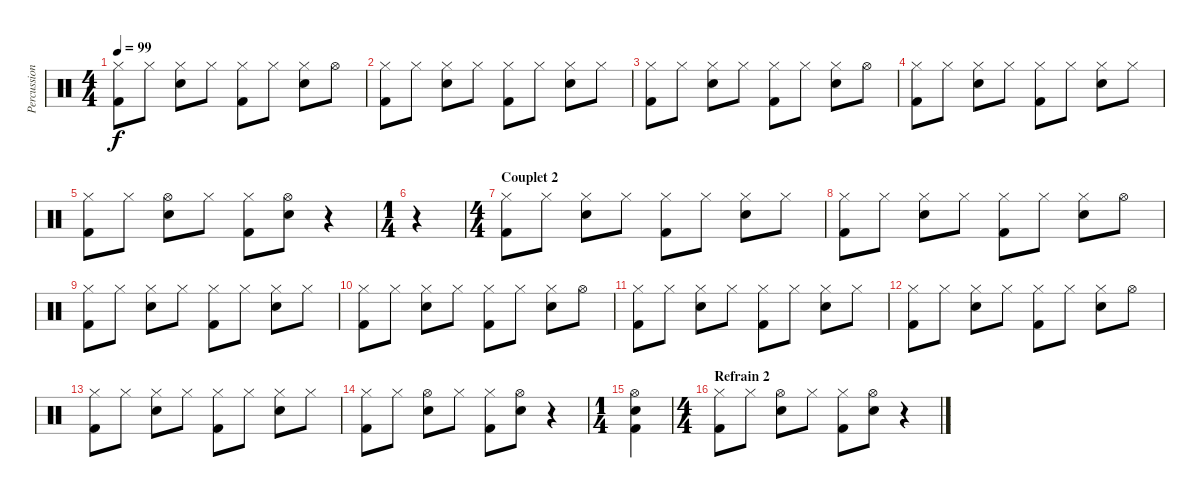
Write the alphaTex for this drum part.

\track ("Percussions" "Percussion") {instrument percussion}
\staff {score}
\articulation defaults
\ts (4 4)
\tempo 99
\clef neutral
\ks c
("Hi-Hat (closed)" "Kick (hit) 2").8{dy f} "Hi-Hat (closed)".8 ("Hi-Hat (closed)" "Electric Snare (hit)").8 "Hi-Hat (closed)".8 ("Hi-Hat (closed)" "Kick (hit) 2").8 "Hi-Hat (closed)".8 ("Hi-Hat (closed)" "Electric Snare (hit)").8 "Hi-Hat (open)".8 |
("Hi-Hat (closed)" "Kick (hit) 2").8 "Hi-Hat (closed)".8 ("Hi-Hat (closed)" "Electric Snare (hit)").8 "Hi-Hat (closed)".8 ("Hi-Hat (closed)" "Kick (hit) 2").8 "Hi-Hat (closed)".8 ("Hi-Hat (closed)" "Electric Snare (hit)").8 "Hi-Hat (closed)".8 |
("Hi-Hat (closed)" "Kick (hit) 2").8 "Hi-Hat (closed)".8 ("Hi-Hat (closed)" "Electric Snare (hit)").8 "Hi-Hat (closed)".8 ("Hi-Hat (closed)" "Kick (hit) 2").8 "Hi-Hat (closed)".8 ("Hi-Hat (closed)" "Electric Snare (hit)").8 "Hi-Hat (open)".8 |
("Hi-Hat (closed)" "Kick (hit) 2").8 "Hi-Hat (closed)".8 ("Hi-Hat (closed)" "Electric Snare (hit)").8 "Hi-Hat (closed)".8 ("Hi-Hat (closed)" "Kick (hit) 2").8 "Hi-Hat (closed)".8 ("Hi-Hat (closed)" "Electric Snare (hit)").8 "Hi-Hat (closed)".8 |
("Hi-Hat (closed)" "Kick (hit) 2").8 "Hi-Hat (closed)".8 ("Hi-Hat (open)" "Electric Snare (hit)").8 "Hi-Hat (closed)".8 ("Hi-Hat (closed)" "Kick (hit) 2").8 ("Hi-Hat (open)" "Electric Snare (hit)").8 r.4 |
\ts (1 4)
r.4 |
\ts (4 4)
\section ("" "Couplet 2")
("Hi-Hat (closed)" "Kick (hit) 2").8 "Hi-Hat (closed)".8 ("Hi-Hat (closed)" "Electric Snare (hit)").8 "Hi-Hat (closed)".8 ("Hi-Hat (closed)" "Kick (hit) 2").8 "Hi-Hat (closed)".8 ("Hi-Hat (closed)" "Electric Snare (hit)").8 "Hi-Hat (closed)".8 |
("Hi-Hat (closed)" "Kick (hit) 2").8 "Hi-Hat (closed)".8 ("Hi-Hat (closed)" "Electric Snare (hit)").8 "Hi-Hat (closed)".8 ("Hi-Hat (closed)" "Kick (hit) 2").8 "Hi-Hat (closed)".8 ("Hi-Hat (closed)" "Electric Snare (hit)").8 "Hi-Hat (open)".8 |
("Hi-Hat (closed)" "Kick (hit) 2").8 "Hi-Hat (closed)".8 ("Hi-Hat (closed)" "Electric Snare (hit)").8 "Hi-Hat (closed)".8 ("Hi-Hat (closed)" "Kick (hit) 2").8 "Hi-Hat (closed)".8 ("Hi-Hat (closed)" "Electric Snare (hit)").8 "Hi-Hat (closed)".8 |
("Hi-Hat (closed)" "Kick (hit) 2").8 "Hi-Hat (closed)".8 ("Hi-Hat (closed)" "Electric Snare (hit)").8 "Hi-Hat (closed)".8 ("Hi-Hat (closed)" "Kick (hit) 2").8 "Hi-Hat (closed)".8 ("Hi-Hat (closed)" "Electric Snare (hit)").8 "Hi-Hat (open)".8 |
("Hi-Hat (closed)" "Kick (hit) 2").8 "Hi-Hat (closed)".8 ("Hi-Hat (closed)" "Electric Snare (hit)").8 "Hi-Hat (closed)".8 ("Hi-Hat (closed)" "Kick (hit) 2").8 "Hi-Hat (closed)".8 ("Hi-Hat (closed)" "Electric Snare (hit)").8 "Hi-Hat (closed)".8 |
("Hi-Hat (closed)" "Kick (hit) 2").8 "Hi-Hat (closed)".8 ("Hi-Hat (closed)" "Electric Snare (hit)").8 "Hi-Hat (closed)".8 ("Hi-Hat (closed)" "Kick (hit) 2").8 "Hi-Hat (closed)".8 ("Hi-Hat (closed)" "Electric Snare (hit)").8 "Hi-Hat (open)".8 |
("Hi-Hat (closed)" "Kick (hit) 2").8 "Hi-Hat (closed)".8 ("Hi-Hat (closed)" "Electric Snare (hit)").8 "Hi-Hat (closed)".8 ("Hi-Hat (closed)" "Kick (hit) 2").8 "Hi-Hat (closed)".8 ("Hi-Hat (closed)" "Electric Snare (hit)").8 "Hi-Hat (closed)".8 |
("Hi-Hat (closed)" "Kick (hit) 2").8 "Hi-Hat (closed)".8 ("Hi-Hat (open)" "Electric Snare (hit)").8 "Hi-Hat (closed)".8 ("Hi-Hat (closed)" "Kick (hit) 2").8 ("Hi-Hat (open)" "Electric Snare (hit)").8 r.4 |
\ts (1 4)
("Hi-Hat (open)" "Electric Snare (hit)" "Kick (hit) 2").4 |
\ts (4 4)
\section ("" "Refrain 2")
("Hi-Hat (closed)" "Kick (hit) 2").8 "Hi-Hat (closed)".8 ("Hi-Hat (open)" "Electric Snare (hit)").8 "Hi-Hat (closed)".8 ("Hi-Hat (closed)" "Kick (hit) 2").8 ("Hi-Hat (open)" "Electric Snare (hit)").8 r.4
